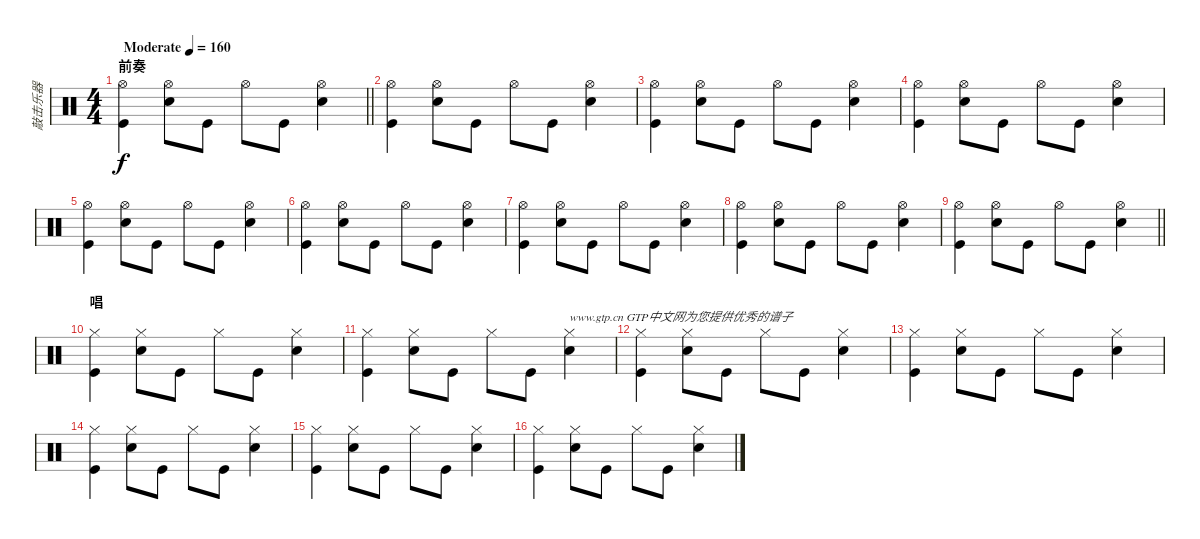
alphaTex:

\track ("敲击乐器" "敲击乐器") {instrument percussion}
\staff {score}
\articulation defaults
\ts (4 4)
\section ("" "前奏")
\tempo (160 "Moderate")
\clef neutral
\barLineRight lightlight
\ks c
("Kick (hit)" "Hi-Hat (open)").4{dy f} ("Snare (hit) 2" "Hi-Hat (open)").8 "Kick (hit)".8 "Hi-Hat (open)".8 "Kick (hit)".8 ("Snare (hit) 2" "Hi-Hat (open)").4 |
("Kick (hit)" "Hi-Hat (open)").4 ("Snare (hit) 2" "Hi-Hat (open)").8 "Kick (hit)".8 "Hi-Hat (open)".8 "Kick (hit)".8 ("Snare (hit) 2" "Hi-Hat (open)").4 |
("Kick (hit)" "Hi-Hat (open)").4 ("Snare (hit) 2" "Hi-Hat (open)").8 "Kick (hit)".8 "Hi-Hat (open)".8 "Kick (hit)".8 ("Snare (hit) 2" "Hi-Hat (open)").4 |
("Kick (hit)" "Hi-Hat (open)").4 ("Snare (hit) 2" "Hi-Hat (open)").8 "Kick (hit)".8 "Hi-Hat (open)".8 "Kick (hit)".8 ("Snare (hit) 2" "Hi-Hat (open)").4 |
("Kick (hit)" "Hi-Hat (open)").4 ("Snare (hit) 2" "Hi-Hat (open)").8 "Kick (hit)".8 "Hi-Hat (open)".8 "Kick (hit)".8 ("Snare (hit) 2" "Hi-Hat (open)").4 |
("Kick (hit)" "Hi-Hat (open)").4 ("Snare (hit) 2" "Hi-Hat (open)").8 "Kick (hit)".8 "Hi-Hat (open)".8 "Kick (hit)".8 ("Snare (hit) 2" "Hi-Hat (open)").4 |
("Kick (hit)" "Hi-Hat (open)").4 ("Snare (hit) 2" "Hi-Hat (open)").8 "Kick (hit)".8 "Hi-Hat (open)".8 "Kick (hit)".8 ("Snare (hit) 2" "Hi-Hat (open)").4 |
("Kick (hit)" "Hi-Hat (open)").4 ("Snare (hit) 2" "Hi-Hat (open)").8 "Kick (hit)".8 "Hi-Hat (open)".8 "Kick (hit)".8 ("Snare (hit) 2" "Hi-Hat (open)").4 |
\barLineRight lightlight
("Kick (hit)" "Hi-Hat (open)").4 ("Snare (hit) 2" "Hi-Hat (open)").8 "Kick (hit)".8 "Hi-Hat (open)".8 "Kick (hit)".8 ("Snare (hit) 2" "Hi-Hat (open)").4 |
\section ("" "唱")
("Kick (hit)" "Hi-Hat (closed)").4 ("Hi-Hat (closed)" "Snare (hit) 2").8 "Kick (hit)".8 "Hi-Hat (closed)".8 "Kick (hit)".8 ("Hi-Hat (closed)" "Snare (hit) 2").4 |
("Kick (hit)" "Hi-Hat (closed)").4 ("Hi-Hat (closed)" "Snare (hit) 2").8 "Kick (hit)".8 "Hi-Hat (closed)".8 "Kick (hit)".8 ("Hi-Hat (closed)" "Snare (hit) 2").4{txt "www.gtp.cn GTP中文网为您提供优秀的谱子"} |
("Kick (hit)" "Hi-Hat (closed)").4 ("Hi-Hat (closed)" "Snare (hit) 2").8 "Kick (hit)".8 "Hi-Hat (closed)".8 "Kick (hit)".8 ("Hi-Hat (closed)" "Snare (hit) 2").4 |
("Kick (hit)" "Hi-Hat (closed)").4 ("Hi-Hat (closed)" "Snare (hit) 2").8 "Kick (hit)".8 "Hi-Hat (closed)".8 "Kick (hit)".8 ("Hi-Hat (closed)" "Snare (hit) 2").4 |
("Kick (hit)" "Hi-Hat (closed)").4 ("Hi-Hat (closed)" "Snare (hit) 2").8 "Kick (hit)".8 "Hi-Hat (closed)".8 "Kick (hit)".8 ("Hi-Hat (closed)" "Snare (hit) 2").4 |
("Kick (hit)" "Hi-Hat (closed)").4 ("Hi-Hat (closed)" "Snare (hit) 2").8 "Kick (hit)".8 "Hi-Hat (closed)".8 "Kick (hit)".8 ("Hi-Hat (closed)" "Snare (hit) 2").4 |
("Kick (hit)" "Hi-Hat (closed)").4 ("Hi-Hat (closed)" "Snare (hit) 2").8 "Kick (hit)".8 "Hi-Hat (closed)".8 "Kick (hit)".8 ("Hi-Hat (closed)" "Snare (hit) 2").4
